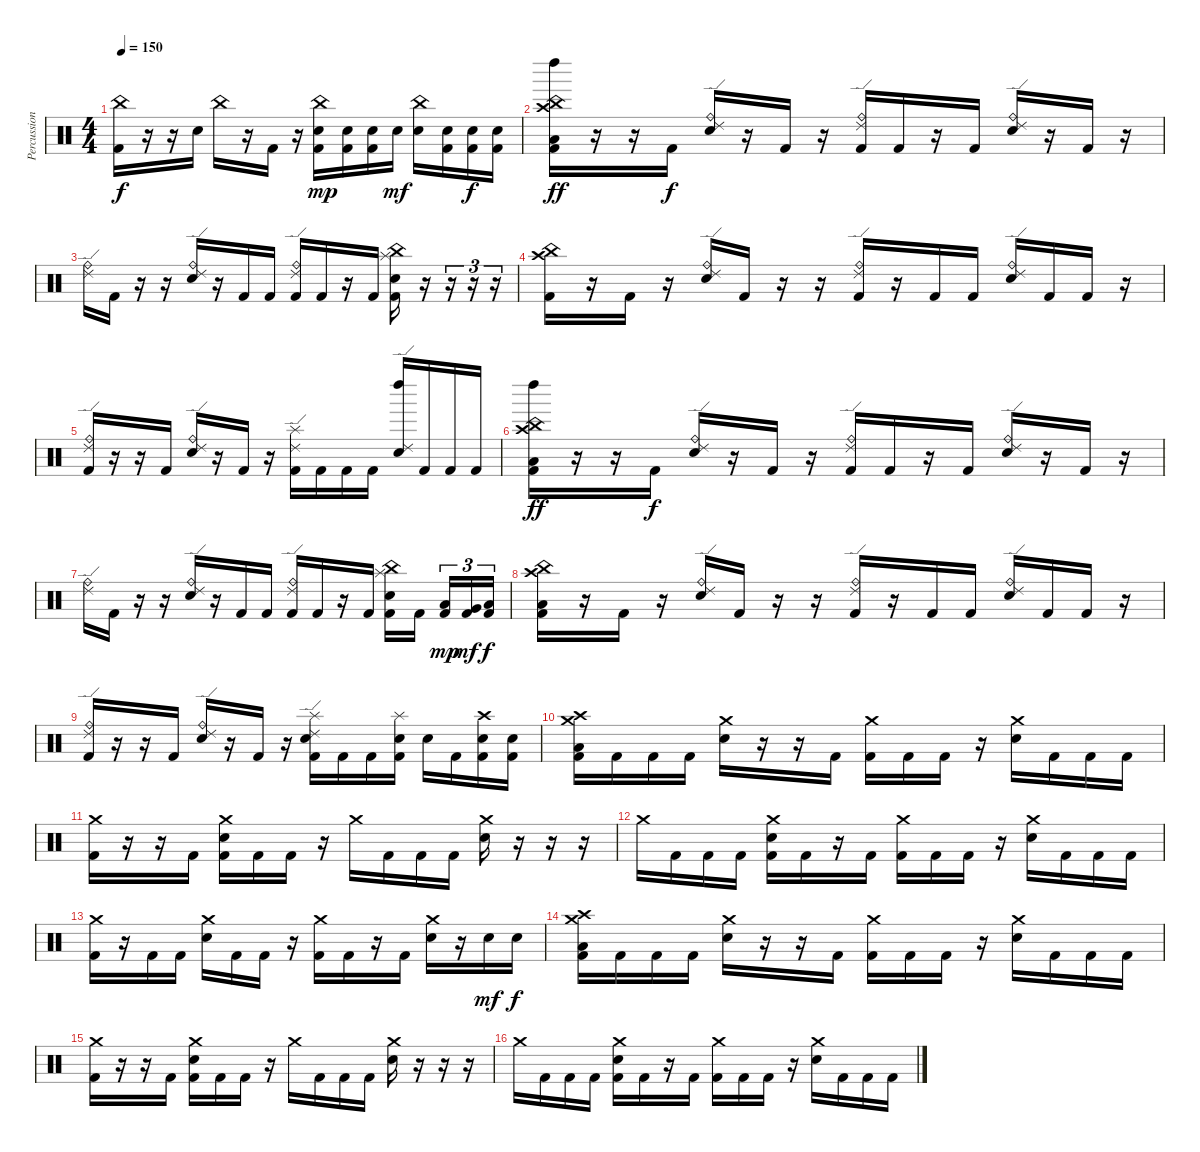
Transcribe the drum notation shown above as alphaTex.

\track ("Percussion" "Percussion") {instrument percussion}
\staff {score}
\articulation defaults
\ts (4 4)
\tempo 150
\clef neutral
\ks c
("China (hit)" "Kick (hit) 2").16{dy f} r.16 r.16 "Electric Snare (hit)".16 "China (hit)".16 r.16 "Kick (hit) 2".16 r.16 ("China (hit)" "Electric Snare (hit)" "Kick (hit) 2").16{dy mp} ("Electric Snare (hit)" "Kick (hit) 2").16 ("Electric Snare (hit)" "Kick (hit) 2").16 "Electric Snare (hit)".16{dy mf} ("China (hit)" "Electric Snare (hit)").16 ("Electric Snare (hit)" "Kick (hit) 2").16 ("Electric Snare (hit)" "Kick (hit) 2").16{dy f} ("Electric Snare (hit)" "Kick (hit) 2").16 |
("China (hit)" "Crash high (hit)" "Left Maraca (hit)" "Low Floor Tom (hit)" "Kick (hit) 2").16{dy ff} r.16 r.16 "Kick (hit) 2".16{dy f} ("Ride (bell)" "Ride (edge) 2" "Electric Snare (hit)").16 r.16 "Kick (hit) 2".16 r.16 ("Ride (bell)" "Ride (edge) 2" "Kick (hit) 2").16 "Kick (hit) 2".16 r.16 "Kick (hit) 2".16 ("Ride (bell)" "Ride (edge) 2" "Electric Snare (hit)").16 r.16 "Kick (hit) 2".16 r.16 |
("Ride (bell)" "Ride (edge) 2").16 "Kick (hit) 2".16 r.16 r.16 ("Ride (bell)" "Ride (edge) 2" "Electric Snare (hit)").16 r.16 "Kick (hit) 2".16 "Kick (hit) 2".16 ("Ride (bell)" "Ride (edge) 2" "Kick (hit) 2").16 "Kick (hit) 2".16 r.16 "Kick (hit) 2".16 ("China (hit)" "Splash (hit)" "Electric Snare (hit)" "Kick (hit) 2").16 r.16 r.16{tu (3 2)} r.16{tu (3 2)} r.16{tu (3 2)} |
("China (hit)" "Crash high (hit)" "Kick (hit) 2").16 r.16 "Kick (hit) 2".16 r.16 ("Ride (bell)" "Ride (edge) 2" "Electric Snare (hit)").16 "Kick (hit) 2".16 r.16 r.16 ("Ride (bell)" "Ride (edge) 2" "Kick (hit) 2").16 r.16 "Kick (hit) 2".16 "Kick (hit) 2".16 ("Ride (bell)" "Ride (edge) 2" "Electric Snare (hit)").16 "Kick (hit) 2".16 "Kick (hit) 2".16 r.16 |
("Ride (bell)" "Ride (edge) 2" "Kick (hit) 2").16 r.16 r.16 "Kick (hit) 2".16 ("Ride (bell)" "Ride (edge) 2" "Electric Snare (hit)").16 r.16 "Kick (hit) 2".16 r.16 ("Splash (hit)" "Ride (edge) 2" "Kick (hit) 2").16 "Kick (hit) 2".16 "Kick (hit) 2".16 "Kick (hit) 2".16 ("Left Maraca (hit)" "Ride (edge) 2" "Electric Snare (hit)").16 "Kick (hit) 2".16 "Kick (hit) 2".16 "Kick (hit) 2".16 |
("China (hit)" "Crash high (hit)" "Left Maraca (hit)" "Low Floor Tom (hit)" "Kick (hit) 2").16{dy ff} r.16 r.16 "Kick (hit) 2".16{dy f} ("Ride (bell)" "Ride (edge) 2" "Electric Snare (hit)").16 r.16 "Kick (hit) 2".16 r.16 ("Ride (bell)" "Ride (edge) 2" "Kick (hit) 2").16 "Kick (hit) 2".16 r.16 "Kick (hit) 2".16 ("Ride (bell)" "Ride (edge) 2" "Electric Snare (hit)").16 r.16 "Kick (hit) 2".16 r.16 |
("Ride (bell)" "Ride (edge) 2").16 "Kick (hit) 2".16 r.16 r.16 ("Ride (bell)" "Ride (edge) 2" "Electric Snare (hit)").16 r.16 "Kick (hit) 2".16 "Kick (hit) 2".16 ("Ride (bell)" "Ride (edge) 2" "Kick (hit) 2").16 "Kick (hit) 2".16 r.16 "Kick (hit) 2".16 ("China (hit)" "Splash (hit)" "Electric Snare (hit)" "Kick (hit) 2").16 "Kick (hit) 2".16 ("Low Floor Tom (hit)" "Kick (hit) 2").16{tu (3 2) dy mp} ("Very Low Tom (hit)" "Kick (hit) 2").16{tu (3 2) dy mf} ("Low Tom (hit)" "Kick (hit) 2").16{tu (3 2) dy f} |
("China (hit)" "Crash high (hit)" "Low Floor Tom (hit)" "Kick (hit) 2").16 r.16 "Kick (hit) 2".16 r.16 ("Ride (bell)" "Ride (edge) 2" "Electric Snare (hit)").16 "Kick (hit) 2".16 r.16 r.16 ("Ride (bell)" "Ride (edge) 2" "Kick (hit) 2").16 r.16 "Kick (hit) 2".16 "Kick (hit) 2".16 ("Ride (bell)" "Ride (edge) 2" "Electric Snare (hit)").16 "Kick (hit) 2".16 "Kick (hit) 2".16 r.16 |
("Ride (bell)" "Ride (edge) 2" "Kick (hit) 2").16 r.16 r.16 "Kick (hit) 2".16 ("Ride (bell)" "Ride (edge) 2" "Electric Snare (hit)").16 r.16 "Kick (hit) 2".16 r.16 ("Splash (hit)" "Ride (edge) 2" "Electric Snare (hit)" "Kick (hit) 2").16 "Kick (hit) 2".16 "Kick (hit) 2".16 ("Splash (hit)" "Electric Snare (hit)" "Kick (hit) 2").16 "Electric Snare (hit)".16 "Kick (hit) 2".16 ("Crash high (hit)" "Electric Snare (hit)" "Kick (hit) 2").16 ("Electric Snare (hit)" "Kick (hit) 2").16 |
("Crash medium (hit)" "Crash high (hit)" "Low Floor Tom (hit)" "Kick (hit) 2").16 "Kick (hit) 2".16 "Kick (hit) 2".16 "Kick (hit) 2".16 ("Crash medium (hit)" "Electric Snare (hit)").16 r.16 r.16 "Kick (hit) 2".16 ("Crash medium (hit)" "Kick (hit) 2").16 "Kick (hit) 2".16 "Kick (hit) 2".16 r.16 ("Crash medium (hit)" "Electric Snare (hit)").16 "Kick (hit) 2".16 "Kick (hit) 2".16 "Kick (hit) 2".16 |
("Crash medium (hit)" "Kick (hit) 2").16 r.16 r.16 "Kick (hit) 2".16 ("Crash medium (hit)" "Electric Snare (hit)" "Kick (hit) 2").16 "Kick (hit) 2".16 "Kick (hit) 2".16 r.16 "Crash medium (hit)".16 "Kick (hit) 2".16 "Kick (hit) 2".16 "Kick (hit) 2".16 ("Crash medium (hit)" "Electric Snare (hit)").16 r.16 r.16 r.16 |
"Crash medium (hit)".16 "Kick (hit) 2".16 "Kick (hit) 2".16 "Kick (hit) 2".16 ("Crash medium (hit)" "Electric Snare (hit)" "Kick (hit) 2").16 "Kick (hit) 2".16 r.16 "Kick (hit) 2".16 ("Crash medium (hit)" "Kick (hit) 2").16 "Kick (hit) 2".16 "Kick (hit) 2".16 r.16 ("Crash medium (hit)" "Electric Snare (hit)").16 "Kick (hit) 2".16 "Kick (hit) 2".16 "Kick (hit) 2".16 |
("Crash medium (hit)" "Kick (hit) 2").16 r.16 "Kick (hit) 2".16 "Kick (hit) 2".16 ("Crash medium (hit)" "Electric Snare (hit)").16 "Kick (hit) 2".16 "Kick (hit) 2".16 r.16 ("Crash medium (hit)" "Kick (hit) 2").16 "Kick (hit) 2".16 r.16 "Kick (hit) 2".16 ("Crash medium (hit)" "Electric Snare (hit)").16 r.16 "Electric Snare (hit)".16{dy mf} "Electric Snare (hit)".16{dy f} |
("Crash medium (hit)" "Crash high (hit)" "Low Floor Tom (hit)" "Kick (hit) 2").16 "Kick (hit) 2".16 "Kick (hit) 2".16 "Kick (hit) 2".16 ("Crash medium (hit)" "Electric Snare (hit)").16 r.16 r.16 "Kick (hit) 2".16 ("Crash medium (hit)" "Kick (hit) 2").16 "Kick (hit) 2".16 "Kick (hit) 2".16 r.16 ("Crash medium (hit)" "Electric Snare (hit)").16 "Kick (hit) 2".16 "Kick (hit) 2".16 "Kick (hit) 2".16 |
("Crash medium (hit)" "Kick (hit) 2").16 r.16 r.16 "Kick (hit) 2".16 ("Crash medium (hit)" "Electric Snare (hit)" "Kick (hit) 2").16 "Kick (hit) 2".16 "Kick (hit) 2".16 r.16 "Crash medium (hit)".16 "Kick (hit) 2".16 "Kick (hit) 2".16 "Kick (hit) 2".16 ("Crash medium (hit)" "Electric Snare (hit)").16 r.16 r.16 r.16 |
"Crash medium (hit)".16 "Kick (hit) 2".16 "Kick (hit) 2".16 "Kick (hit) 2".16 ("Crash medium (hit)" "Electric Snare (hit)" "Kick (hit) 2").16 "Kick (hit) 2".16 r.16 "Kick (hit) 2".16 ("Crash medium (hit)" "Kick (hit) 2").16 "Kick (hit) 2".16 "Kick (hit) 2".16 r.16 ("Crash medium (hit)" "Electric Snare (hit)").16 "Kick (hit) 2".16 "Kick (hit) 2".16 "Kick (hit) 2".16
